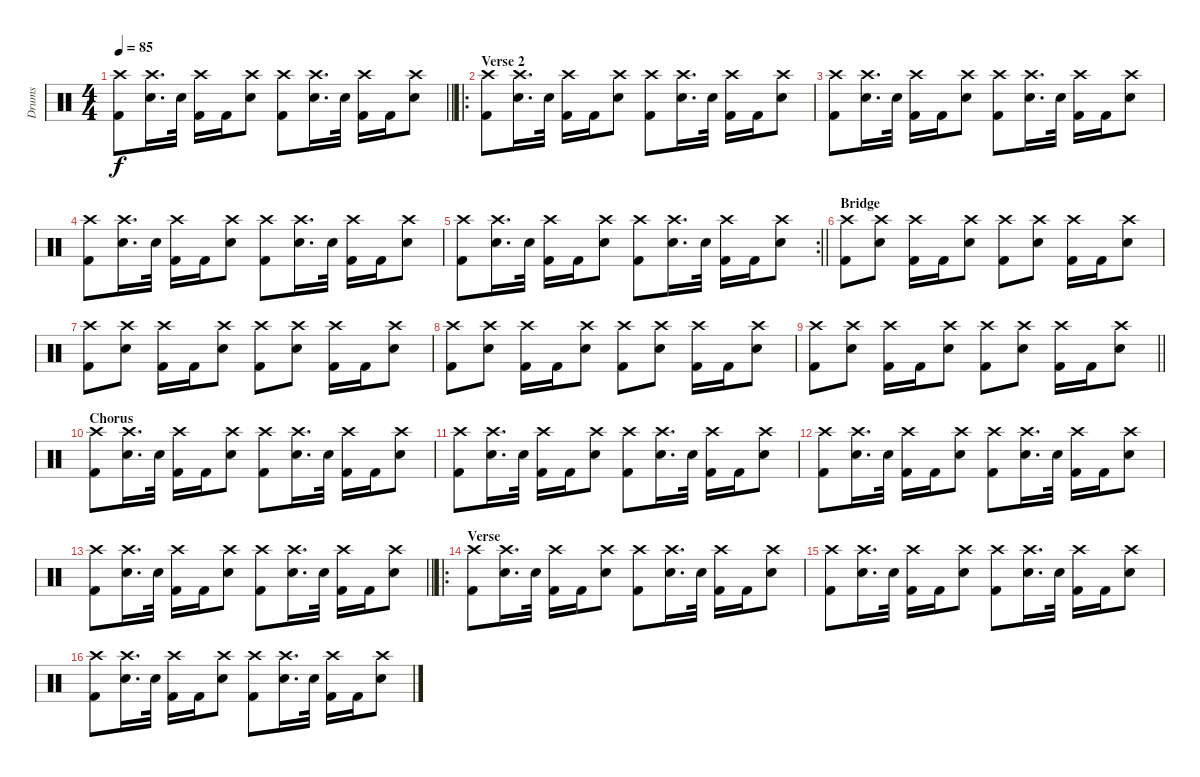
\track ("Drums" "Drums") {instrument percussion}
\staff {score}
\articulation defaults
\ts (4 4)
\tempo 85
\clef neutral
\barLineRight lightlight
\ks c
("Crash high (hit)" "Kick (hit) 2").8{dy f} ("Crash high (hit)" "Electric Snare (hit)").16{d} "Electric Snare (hit)".32 ("Crash high (hit)" "Kick (hit) 2").16 "Kick (hit) 2".16 ("Crash high (hit)" "Electric Snare (hit)").8 ("Crash high (hit)" "Kick (hit) 2").8 ("Crash high (hit)" "Electric Snare (hit)").16{d} "Electric Snare (hit)".32 ("Crash high (hit)" "Kick (hit) 2").16 "Kick (hit) 2".16 ("Crash high (hit)" "Electric Snare (hit)").8 |
\ro
\section ("" "Verse 2")
("Crash high (hit)" "Kick (hit) 2").8 ("Crash high (hit)" "Electric Snare (hit)").16{d} "Electric Snare (hit)".32 ("Crash high (hit)" "Kick (hit) 2").16 "Kick (hit) 2".16 ("Crash high (hit)" "Electric Snare (hit)").8 ("Crash high (hit)" "Kick (hit) 2").8 ("Crash high (hit)" "Electric Snare (hit)").16{d} "Electric Snare (hit)".32 ("Crash high (hit)" "Kick (hit) 2").16 "Kick (hit) 2".16 ("Crash high (hit)" "Electric Snare (hit)").8 |
("Crash high (hit)" "Kick (hit) 2").8 ("Crash high (hit)" "Electric Snare (hit)").16{d} "Electric Snare (hit)".32 ("Crash high (hit)" "Kick (hit) 2").16 "Kick (hit) 2".16 ("Crash high (hit)" "Electric Snare (hit)").8 ("Crash high (hit)" "Kick (hit) 2").8 ("Crash high (hit)" "Electric Snare (hit)").16{d} "Electric Snare (hit)".32 ("Crash high (hit)" "Kick (hit) 2").16 "Kick (hit) 2".16 ("Crash high (hit)" "Electric Snare (hit)").8 |
("Crash high (hit)" "Kick (hit) 2").8 ("Crash high (hit)" "Electric Snare (hit)").16{d} "Electric Snare (hit)".32 ("Crash high (hit)" "Kick (hit) 2").16 "Kick (hit) 2".16 ("Crash high (hit)" "Electric Snare (hit)").8 ("Crash high (hit)" "Kick (hit) 2").8 ("Crash high (hit)" "Electric Snare (hit)").16{d} "Electric Snare (hit)".32 ("Crash high (hit)" "Kick (hit) 2").16 "Kick (hit) 2".16 ("Crash high (hit)" "Electric Snare (hit)").8 |
\rc 2
\barLineRight lightlight
("Crash high (hit)" "Kick (hit) 2").8 ("Crash high (hit)" "Electric Snare (hit)").16{d} "Electric Snare (hit)".32 ("Crash high (hit)" "Kick (hit) 2").16 "Kick (hit) 2".16 ("Crash high (hit)" "Electric Snare (hit)").8 ("Crash high (hit)" "Kick (hit) 2").8 ("Crash high (hit)" "Electric Snare (hit)").16{d} "Electric Snare (hit)".32 ("Crash high (hit)" "Kick (hit) 2").16 "Kick (hit) 2".16 ("Crash high (hit)" "Electric Snare (hit)").8 |
\section ("" "Bridge")
("Crash high (hit)" "Kick (hit) 2").8 ("Crash high (hit)" "Electric Snare (hit)").8 ("Crash high (hit)" "Kick (hit) 2").16 "Kick (hit) 2".16 ("Crash high (hit)" "Electric Snare (hit)").8 ("Crash high (hit)" "Kick (hit) 2").8 ("Crash high (hit)" "Electric Snare (hit)").8 ("Crash high (hit)" "Kick (hit) 2").16 "Kick (hit) 2".16 ("Crash high (hit)" "Electric Snare (hit)").8 |
("Crash high (hit)" "Kick (hit) 2").8 ("Crash high (hit)" "Electric Snare (hit)").8 ("Crash high (hit)" "Kick (hit) 2").16 "Kick (hit) 2".16 ("Crash high (hit)" "Electric Snare (hit)").8 ("Crash high (hit)" "Kick (hit) 2").8 ("Crash high (hit)" "Electric Snare (hit)").8 ("Crash high (hit)" "Kick (hit) 2").16 "Kick (hit) 2".16 ("Crash high (hit)" "Electric Snare (hit)").8 |
("Crash high (hit)" "Kick (hit) 2").8 ("Crash high (hit)" "Electric Snare (hit)").8 ("Crash high (hit)" "Kick (hit) 2").16 "Kick (hit) 2".16 ("Crash high (hit)" "Electric Snare (hit)").8 ("Crash high (hit)" "Kick (hit) 2").8 ("Crash high (hit)" "Electric Snare (hit)").8 ("Crash high (hit)" "Kick (hit) 2").16 "Kick (hit) 2".16 ("Crash high (hit)" "Electric Snare (hit)").8 |
\barLineRight lightlight
("Crash high (hit)" "Kick (hit) 2").8 ("Crash high (hit)" "Electric Snare (hit)").8 ("Crash high (hit)" "Kick (hit) 2").16 "Kick (hit) 2".16 ("Crash high (hit)" "Electric Snare (hit)").8 ("Crash high (hit)" "Kick (hit) 2").8 ("Crash high (hit)" "Electric Snare (hit)").8 ("Crash high (hit)" "Kick (hit) 2").16 "Kick (hit) 2".16 ("Crash high (hit)" "Electric Snare (hit)").8 |
\section ("" "Chorus")
("Crash high (hit)" "Kick (hit) 2").8 ("Crash high (hit)" "Electric Snare (hit)").16{d} "Electric Snare (hit)".32 ("Crash high (hit)" "Kick (hit) 2").16 "Kick (hit) 2".16 ("Crash high (hit)" "Electric Snare (hit)").8 ("Crash high (hit)" "Kick (hit) 2").8 ("Crash high (hit)" "Electric Snare (hit)").16{d} "Electric Snare (hit)".32 ("Crash high (hit)" "Kick (hit) 2").16 "Kick (hit) 2".16 ("Crash high (hit)" "Electric Snare (hit)").8 |
("Crash high (hit)" "Kick (hit) 2").8 ("Crash high (hit)" "Electric Snare (hit)").16{d} "Electric Snare (hit)".32 ("Crash high (hit)" "Kick (hit) 2").16 "Kick (hit) 2".16 ("Crash high (hit)" "Electric Snare (hit)").8 ("Crash high (hit)" "Kick (hit) 2").8 ("Crash high (hit)" "Electric Snare (hit)").16{d} "Electric Snare (hit)".32 ("Crash high (hit)" "Kick (hit) 2").16 "Kick (hit) 2".16 ("Crash high (hit)" "Electric Snare (hit)").8 |
("Crash high (hit)" "Kick (hit) 2").8 ("Crash high (hit)" "Electric Snare (hit)").16{d} "Electric Snare (hit)".32 ("Crash high (hit)" "Kick (hit) 2").16 "Kick (hit) 2".16 ("Crash high (hit)" "Electric Snare (hit)").8 ("Crash high (hit)" "Kick (hit) 2").8 ("Crash high (hit)" "Electric Snare (hit)").16{d} "Electric Snare (hit)".32 ("Crash high (hit)" "Kick (hit) 2").16 "Kick (hit) 2".16 ("Crash high (hit)" "Electric Snare (hit)").8 |
\barLineRight lightlight
("Crash high (hit)" "Kick (hit) 2").8 ("Crash high (hit)" "Electric Snare (hit)").16{d} "Electric Snare (hit)".32 ("Crash high (hit)" "Kick (hit) 2").16 "Kick (hit) 2".16 ("Crash high (hit)" "Electric Snare (hit)").8 ("Crash high (hit)" "Kick (hit) 2").8 ("Crash high (hit)" "Electric Snare (hit)").16{d} "Electric Snare (hit)".32 ("Crash high (hit)" "Kick (hit) 2").16 "Kick (hit) 2".16 ("Crash high (hit)" "Electric Snare (hit)").8 |
\ro
\section ("" "Verse")
("Crash high (hit)" "Kick (hit) 2").8 ("Crash high (hit)" "Electric Snare (hit)").16{d} "Electric Snare (hit)".32 ("Crash high (hit)" "Kick (hit) 2").16 "Kick (hit) 2".16 ("Crash high (hit)" "Electric Snare (hit)").8 ("Crash high (hit)" "Kick (hit) 2").8 ("Crash high (hit)" "Electric Snare (hit)").16{d} "Electric Snare (hit)".32 ("Crash high (hit)" "Kick (hit) 2").16 "Kick (hit) 2".16 ("Crash high (hit)" "Electric Snare (hit)").8 |
("Crash high (hit)" "Kick (hit) 2").8 ("Crash high (hit)" "Electric Snare (hit)").16{d} "Electric Snare (hit)".32 ("Crash high (hit)" "Kick (hit) 2").16 "Kick (hit) 2".16 ("Crash high (hit)" "Electric Snare (hit)").8 ("Crash high (hit)" "Kick (hit) 2").8 ("Crash high (hit)" "Electric Snare (hit)").16{d} "Electric Snare (hit)".32 ("Crash high (hit)" "Kick (hit) 2").16 "Kick (hit) 2".16 ("Crash high (hit)" "Electric Snare (hit)").8 |
("Crash high (hit)" "Kick (hit) 2").8 ("Crash high (hit)" "Electric Snare (hit)").16{d} "Electric Snare (hit)".32 ("Crash high (hit)" "Kick (hit) 2").16 "Kick (hit) 2".16 ("Crash high (hit)" "Electric Snare (hit)").8 ("Crash high (hit)" "Kick (hit) 2").8 ("Crash high (hit)" "Electric Snare (hit)").16{d} "Electric Snare (hit)".32 ("Crash high (hit)" "Kick (hit) 2").16 "Kick (hit) 2".16 ("Crash high (hit)" "Electric Snare (hit)").8
